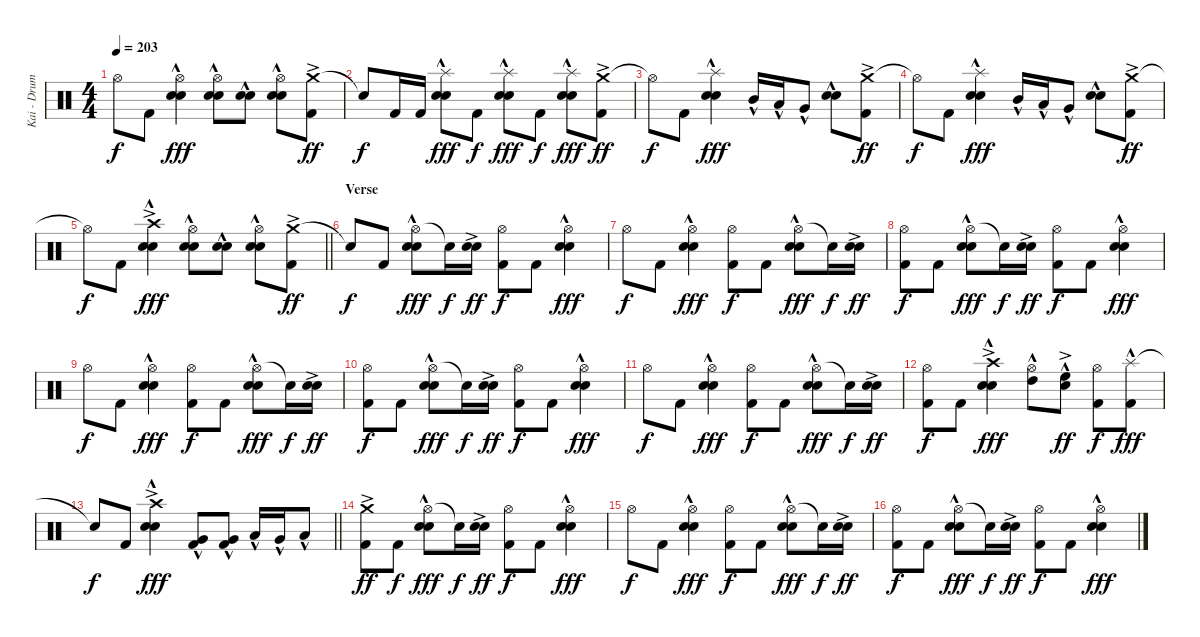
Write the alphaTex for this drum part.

\track ("Kai - Drums" "Kai - Drum") {instrument percussion}
\staff {score}
\articulation defaults
\ts (4 4)
\tempo 203
\clef neutral
\ks c "Hi-Hat (open)".8{dy f} "Kick (hit) 2".8
("Hi-Hat (open)" "Electric Snare (hit)"{hac} "Snare (hit) 2"{hac}).4{dy fff} ("Hi-Hat (open)" "Electric Snare (hit)"{hac} "Snare (hit) 2"{hac}).8 ("Electric Snare (hit)"{hac} "Snare (hit) 2"{hac}).8 ("Hi-Hat (open)" "Electric Snare (hit)"{hac} "Snare (hit) 2"{hac}).8 ("Crash medium (hit)"{ac} "Kick (hit) 2").8{dy ff} |
"Snare (hit)"{t}.8{dy f} "Kick (hit) 2".16 "Kick (hit) 2".16 ("Splash (hit)"{hac} "Electric Snare (hit)"{hac} "Snare (hit) 2"{hac}).8{dy fff} "Kick (hit) 2".8{dy f} ("Splash (hit)"{hac} "Electric Snare (hit)"{hac} "Snare (hit) 2"{hac}).8{dy fff} "Kick (hit) 2".8{dy f} ("Splash (hit)"{hac} "Electric Snare (hit)"{hac} "Snare (hit) 2"{hac}).8{dy fff} ("Crash medium (hit)"{ac} "Kick (hit) 2").8{dy ff} |
"Hi-Hat (open)"{t}.8{dy f} "Kick (hit) 2".8 ("Splash (hit)"{hac} "Electric Snare (hit)"{hac} "Snare (hit) 2"{hac}).4{dy fff} "Mid Tom (hit)"{hac}.16 "Low Tom (hit)"{hac}.16 "Very Low Tom (hit)"{hac}.8 ("Electric Snare (hit)"{hac} "Snare (hit) 2"{hac}).8 ("Crash medium (hit)"{ac} "Kick (hit) 2").8{dy ff} |
"Hi-Hat (open)"{t}.8{dy f} "Kick (hit) 2".8 ("Splash (hit)"{hac} "Electric Snare (hit)"{hac} "Snare (hit) 2"{hac}).4{dy fff} "Mid Tom (hit)"{hac}.16 "Low Tom (hit)"{hac}.16 "Very Low Tom (hit)"{hac}.8 ("Electric Snare (hit)"{hac} "Snare (hit) 2"{hac}).8 ("Crash medium (hit)"{ac} "Kick (hit) 2").8{dy ff} |
\barLineRight lightlight "Hi-Hat (open)"{t}.8{dy f} "Kick (hit) 2".8
("Crash high (hit)"{ac} "Electric Snare (hit)"{hac} "Snare (hit) 2"{hac}).4{dy fff} ("Hi-Hat (open)" "Electric Snare (hit)"{hac} "Snare (hit) 2"{hac}).8 ("Electric Snare (hit)"{hac} "Snare (hit) 2"{hac}).8 ("Hi-Hat (open)" "Electric Snare (hit)"{hac} "Snare (hit) 2"{hac}).8 ("Crash medium (hit)"{ac} "Kick (hit) 2").8{dy ff} |
\section ("" "Verse")
"Snare (hit)"{t}.8{dy f} "Kick (hit) 2".8 ("Hi-Hat (open)" "Electric Snare (hit)"{hac} "Snare (hit) 2"{hac}).8{dy fff} "Snare (hit)"{t}.16{dy f} ("Electric Snare (hit)"{ac} "Snare (hit) 2"{ac}).16{dy ff} ("Hi-Hat (open)" "Kick (hit) 2").8{dy f} "Kick (hit) 2".8 ("Hi-Hat (open)" "Electric Snare (hit)"{hac} "Snare (hit) 2"{hac}).4{dy fff} |
"Hi-Hat (open)".8{dy f} "Kick (hit) 2".8 ("Hi-Hat (open)" "Electric Snare (hit)"{hac} "Snare (hit) 2"{hac}).4{dy fff} ("Hi-Hat (open)" "Kick (hit) 2").8{dy f} "Kick (hit) 2".8 ("Hi-Hat (open)" "Electric Snare (hit)"{hac} "Snare (hit) 2"{hac}).8{dy fff} "Snare (hit)"{t}.16{dy f} ("Electric Snare (hit)"{ac} "Snare (hit) 2"{ac}).16{dy ff} |
("Hi-Hat (open)" "Kick (hit) 2").8{dy f} "Kick (hit) 2".8 ("Hi-Hat (open)" "Electric Snare (hit)"{hac} "Snare (hit) 2"{hac}).8{dy fff} "Snare (hit)"{t}.16{dy f} ("Electric Snare (hit)"{ac} "Snare (hit) 2"{ac}).16{dy ff} ("Hi-Hat (open)" "Kick (hit) 2").8{dy f} "Kick (hit) 2".8 ("Hi-Hat (open)" "Electric Snare (hit)"{hac} "Snare (hit) 2"{hac}).4{dy fff} |
"Hi-Hat (open)".8{dy f} "Kick (hit) 2".8 ("Hi-Hat (open)" "Electric Snare (hit)"{hac} "Snare (hit) 2"{hac}).4{dy fff} ("Hi-Hat (open)" "Kick (hit) 2").8{dy f} "Kick (hit) 2".8 ("Hi-Hat (open)" "Electric Snare (hit)"{hac} "Snare (hit) 2"{hac}).8{dy fff} "Snare (hit)"{t}.16{dy f} ("Electric Snare (hit)"{ac} "Snare (hit) 2"{ac}).16{dy ff} |
("Hi-Hat (open)" "Kick (hit) 2").8{dy f} "Kick (hit) 2".8 ("Hi-Hat (open)" "Electric Snare (hit)"{hac} "Snare (hit) 2"{hac}).8{dy fff} "Snare (hit)"{t}.16{dy f} ("Electric Snare (hit)"{ac} "Snare (hit) 2"{ac}).16{dy ff} ("Hi-Hat (open)" "Kick (hit) 2").8{dy f} "Kick (hit) 2".8 ("Hi-Hat (open)" "Electric Snare (hit)"{hac} "Snare (hit) 2"{hac}).4{dy fff} |
"Hi-Hat (open)".8{dy f} "Kick (hit) 2".8 ("Hi-Hat (open)" "Electric Snare (hit)"{hac} "Snare (hit) 2"{hac}).4{dy fff} ("Hi-Hat (open)" "Kick (hit) 2").8{dy f} "Kick (hit) 2".8 ("Hi-Hat (open)" "Electric Snare (hit)"{hac} "Snare (hit) 2"{hac}).8{dy fff} "Snare (hit)"{t}.16{dy f} ("Electric Snare (hit)"{ac} "Snare (hit) 2"{ac}).16{dy ff} |
("Hi-Hat (open)" "Kick (hit) 2").8{dy f} "Kick (hit) 2".8 ("Crash high (hit)"{ac} "Electric Snare (hit)"{hac} "Snare (hit) 2"{hac}).4{dy fff} ("Hi-Hat (open)" "High Tom (hit)"{hac}).8 ("Electric Snare (hit)"{hac} "High Floor Tom (hit)"{ac}).8{dy ff} ("Hi-Hat (open)" "Kick (hit) 2").8{dy f} ("Splash (hit)"{hac} "Kick (hit) 2").8{dy fff} |
\barLineRight lightlight "Snare (hit)"{t}.8{dy f} "Kick (hit) 2".8
("Crash high (hit)"{ac} "Electric Snare (hit)"{hac} "Snare (hit) 2"{hac}).4{dy fff} ("Very Low Tom (hit)"{hac} "Kick (hit) 2").8 ("Very Low Tom (hit)"{hac} "Kick (hit) 2").8 "Low Tom (hit)"{hac}.16 "Very Low Tom (hit)"{hac}.16 "Low Floor Tom (hit)"{hac}.8 |
\section ("" "")
("Crash medium (hit)"{ac} "Kick (hit) 2").8{dy ff} "Kick (hit) 2".8{dy f} ("Hi-Hat (open)" "Electric Snare (hit)"{hac} "Snare (hit) 2"{hac}).8{dy fff} "Snare (hit)"{t}.16{dy f} ("Electric Snare (hit)"{ac} "Snare (hit) 2"{ac}).16{dy ff} ("Hi-Hat (open)" "Kick (hit) 2").8{dy f} "Kick (hit) 2".8 ("Hi-Hat (open)" "Electric Snare (hit)"{hac} "Snare (hit) 2"{hac}).4{dy fff} |
"Hi-Hat (open)".8{dy f} "Kick (hit) 2".8 ("Hi-Hat (open)" "Electric Snare (hit)"{hac} "Snare (hit) 2"{hac}).4{dy fff} ("Hi-Hat (open)" "Kick (hit) 2").8{dy f} "Kick (hit) 2".8 ("Hi-Hat (open)" "Electric Snare (hit)"{hac} "Snare (hit) 2"{hac}).8{dy fff} "Snare (hit)"{t}.16{dy f} ("Electric Snare (hit)"{ac} "Snare (hit) 2"{ac}).16{dy ff} |
("Hi-Hat (open)" "Kick (hit) 2").8{dy f} "Kick (hit) 2".8 ("Hi-Hat (open)" "Electric Snare (hit)"{hac} "Snare (hit) 2"{hac}).8{dy fff} "Snare (hit)"{t}.16{dy f} ("Electric Snare (hit)"{ac} "Snare (hit) 2"{ac}).16{dy ff} ("Hi-Hat (open)" "Kick (hit) 2").8{dy f} "Kick (hit) 2".8 ("Hi-Hat (open)" "Electric Snare (hit)"{hac} "Snare (hit) 2"{hac}).4{dy fff}
